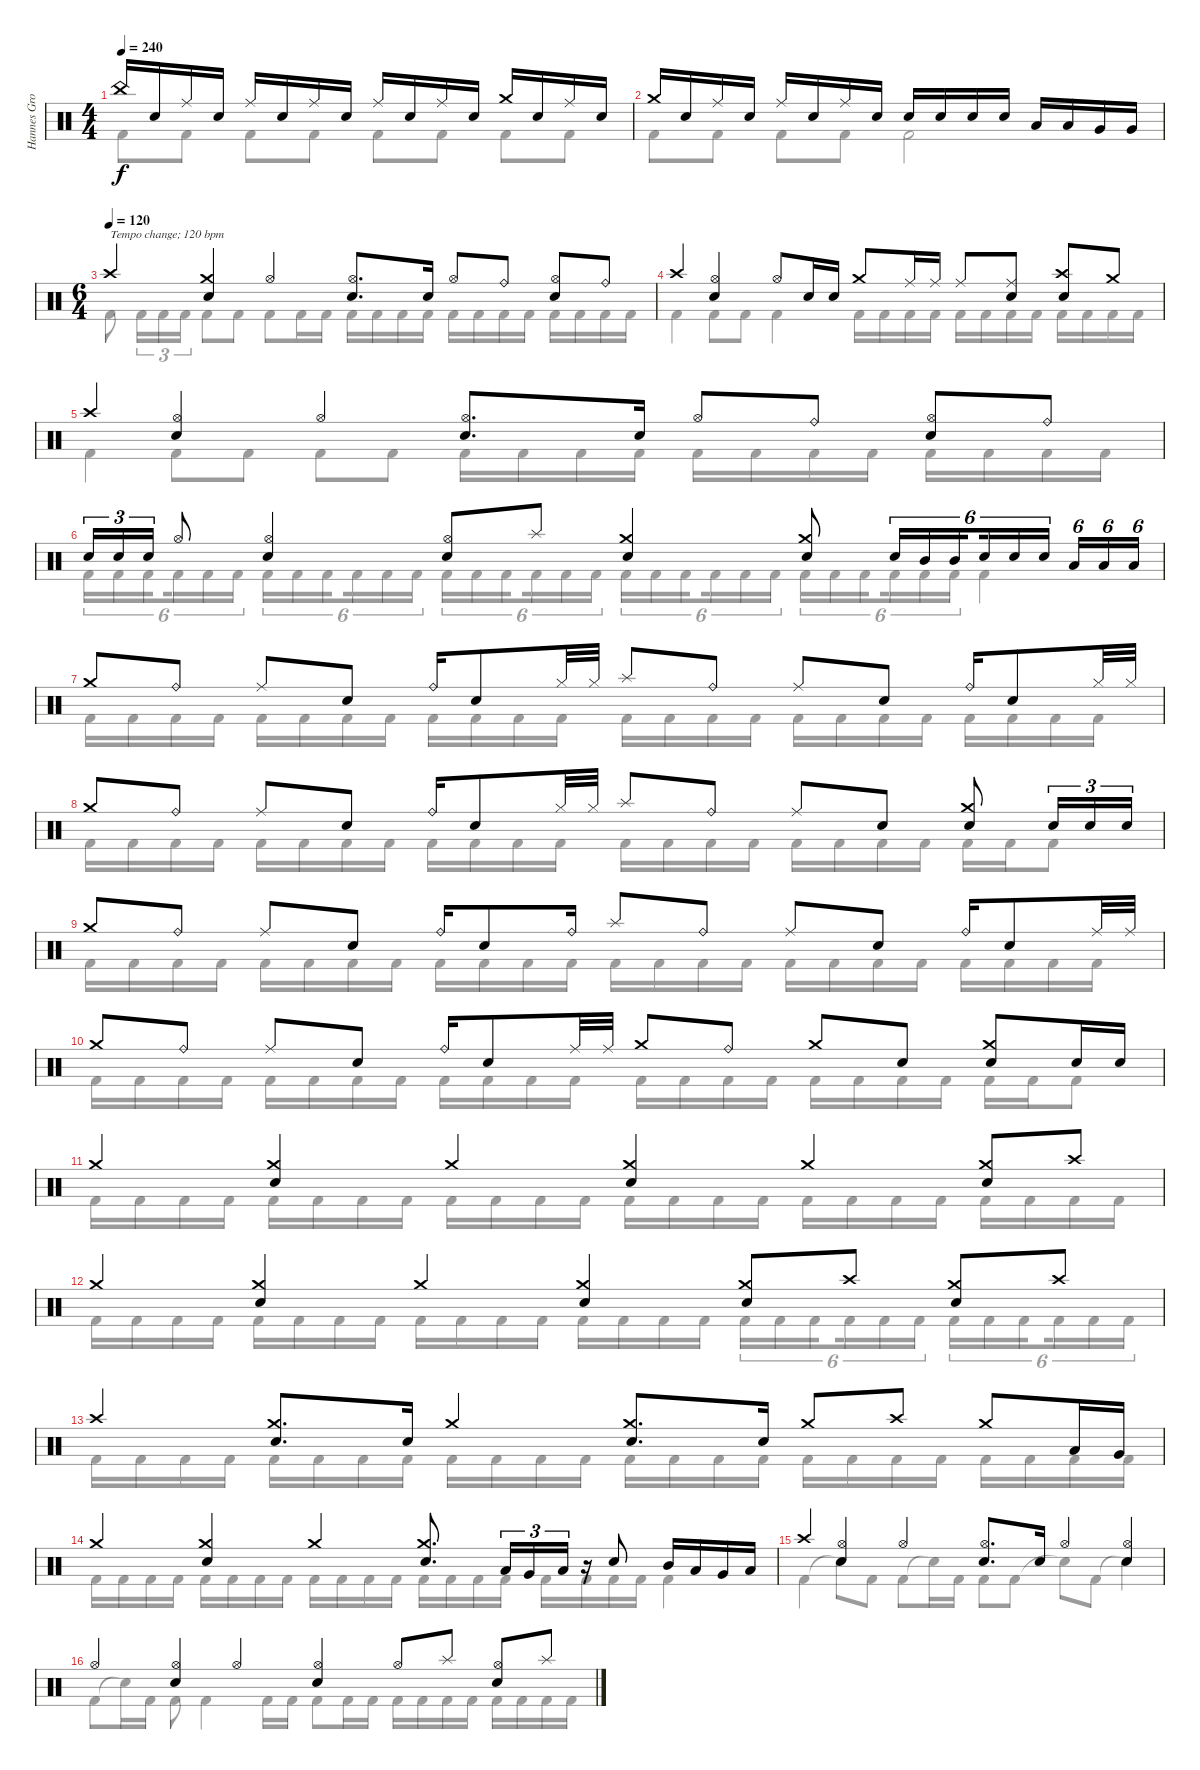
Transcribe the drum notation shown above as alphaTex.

\track ("Hannes Grossmann - drums" "Hannes Gro") {instrument percussion}
\staff {score}
\articulation defaults
\voice
\ts (4 4)
\tempo 240
\clef neutral
\ks c "China (hit)".16{dy f} "Electric Snare (hit)".16 "Ride (middle)".16 "Electric Snare (hit)".16 "Ride (middle)".16 "Electric Snare (hit)".16 "Ride (middle)".16 "Electric Snare (hit)".16 "Ride (middle)".16 "Electric Snare (hit)".16 "Ride (middle)".16 "Electric Snare (hit)".16 "Crash medium (hit)".16 "Electric Snare (hit)".16 "Ride (middle)".16 "Electric Snare (hit)".16
|
"Crash medium (hit)".16 "Electric Snare (hit)".16 "Ride (middle)".16 "Electric Snare (hit)".16 "Ride (middle)".16 "Electric Snare (hit)".16 "Ride (middle)".16 "Electric Snare (hit)".16 "Electric Snare (hit)".16 "Electric Snare (hit)".16 "Electric Snare (hit)".16 "Electric Snare (hit)".16 "Low Tom (hit)".16 "Low Tom (hit)".16 "Very Low Tom (hit)".16 "Very Low Tom (hit)".16 |
\ts (6 4)
\tempo (120)
"Crash high (hit)".4{txt "Tempo change; 120 bpm"} ("Crash medium (hit)" "Electric Snare (hit)").4 "Hi-Hat (open)".4 ("Hi-Hat (open)" "Electric Snare (hit)").8{d} "Electric Snare (hit)".16 "Hi-Hat (open)".8 "Ride (bell)".8 ("Hi-Hat (open)" "Electric Snare (hit)").8 "Ride (bell)".8 |
"Crash high (hit)".4 ("Hi-Hat (open)" "Electric Snare (hit)").4 "Hi-Hat (open)".8 "Electric Snare (hit)".16 "Electric Snare (hit)".16 "Crash medium (hit)".8 "Ride (middle)".16 "Ride (middle)".16 "Ride (middle)".8 ("Ride (middle)" "Electric Snare (hit)").8 ("Crash high (hit)" "Electric Snare (hit)").8 "Crash medium (hit)".8 |
"Crash high (hit)".4 ("Hi-Hat (open)" "Electric Snare (hit)").4 "Hi-Hat (open)".4 ("Hi-Hat (open)" "Electric Snare (hit)").8{d} "Electric Snare (hit)".16 "Hi-Hat (open)".8 "Ride (bell)".8 ("Hi-Hat (open)" "Electric Snare (hit)").8 "Ride (bell)".8 |
"Electric Snare (hit)".16{tu (3 2)} "Electric Snare (hit)".16{tu (3 2)} "Electric Snare (hit)".16{tu (3 2)} "Hi-Hat (open)".8 ("Hi-Hat (open)" "Electric Snare (hit)").4 ("Hi-Hat (open)" "Electric Snare (hit)").8 "Splash (hit)".8 ("Crash medium (hit)" "Electric Snare (hit)").4 ("Crash medium (hit)" "Electric Snare (hit)").8 "Electric Snare (hit)".16{tu (6 4)} "Mid Tom (hit)".16{tu (6 4)} "Mid Tom (hit)".16{tu (6 4) beam splitsecondary} "Electric Snare (hit)".16{tu (6 4)} "Electric Snare (hit)".16{tu (6 4)} "Electric Snare (hit)".16{tu (6 4) beam splitsecondary} "Low Tom (hit)".16{tu (6 4)} "Low Tom (hit)".16{tu (6 4)} "Low Tom (hit)".16{tu (6 4)} |
"Crash medium (hit)".8 "Ride (bell)".8 "Ride (middle)".8 "Electric Snare (hit)".8 "Ride (bell)".16 "Electric Snare (hit)".8 "Hi-Hat (closed)".32 "Hi-Hat (closed)".32 "Splash (hit)".8 "Ride (bell)".8 "Ride (middle)".8 "Electric Snare (hit)".8 "Ride (bell)".16 "Electric Snare (hit)".8 "Hi-Hat (closed)".32 "Hi-Hat (closed)".32 |
"Crash medium (hit)".8 "Ride (bell)".8 "Ride (middle)".8 "Electric Snare (hit)".8 "Ride (bell)".16 "Electric Snare (hit)".8 "Hi-Hat (closed)".32 "Hi-Hat (closed)".32 "Splash (hit)".8 "Ride (bell)".8 "Ride (middle)".8 "Electric Snare (hit)".8 ("Crash medium (hit)" "Electric Snare (hit)").8 "Electric Snare (hit)".16{tu (3 2)} "Electric Snare (hit)".16{tu (3 2)} "Electric Snare (hit)".16{tu (3 2)} |
"Crash medium (hit)".8 "Ride (bell)".8 "Ride (middle)".8 "Electric Snare (hit)".8 "Ride (bell)".16 "Electric Snare (hit)".8 "Ride (bell)".16 "Splash (hit)".8 "Ride (bell)".8 "Ride (middle)".8 "Electric Snare (hit)".8 "Ride (bell)".16 "Electric Snare (hit)".8 "Ride (middle)".32 "Ride (middle)".32 |
"Crash medium (hit)".8 "Ride (bell)".8 "Ride (middle)".8 "Electric Snare (hit)".8 "Ride (bell)".16 "Electric Snare (hit)".8 "Ride (middle)".32 "Ride (middle)".32 "Crash medium (hit)".8 "Ride (bell)".8 "Crash medium (hit)".8 "Electric Snare (hit)".8 ("Crash medium (hit)" "Electric Snare (hit)").8 "Electric Snare (hit)".16 "Electric Snare (hit)".16 |
"Crash medium (hit)".4 ("Crash medium (hit)" "Electric Snare (hit)").4 "Crash medium (hit)".4 ("Crash medium (hit)" "Electric Snare (hit)").4 "Crash medium (hit)".4 ("Crash medium (hit)" "Electric Snare (hit)").8 "Crash high (hit)".8 |
"Crash medium (hit)".4 ("Crash medium (hit)" "Electric Snare (hit)").4 "Crash medium (hit)".4 ("Crash medium (hit)" "Electric Snare (hit)").4 ("Crash medium (hit)" "Electric Snare (hit)").8 "Crash high (hit)".8 ("Crash medium (hit)" "Electric Snare (hit)").8 "Crash high (hit)".8 |
"Crash high (hit)".4 ("Crash medium (hit)" "Electric Snare (hit)").8{d} "Electric Snare (hit)".16 "Crash medium (hit)".4 ("Crash medium (hit)" "Electric Snare (hit)").8{d} "Electric Snare (hit)".16 "Crash medium (hit)".8 "Crash high (hit)".8 "Crash medium (hit)".8 "Low Tom (hit)".16 "Very Low Tom (hit)".16 |
"Crash medium (hit)".4 ("Crash medium (hit)" "Electric Snare (hit)").4 "Crash medium (hit)".4 ("Crash medium (hit)" "Electric Snare (hit)").8{d} "Low Tom (hit)".16{tu (3 2)} "Very Low Tom (hit)".16{tu (3 2)} "Low Floor Tom (hit)".16{tu (3 2)} r.16 "Electric Snare (hit)".8 "Mid Tom (hit)".16 "Low Tom (hit)".16 "Very Low Tom (hit)".16 "Low Floor Tom (hit)".16 |
"Crash high (hit)".4 ("Hi-Hat (open)" "Electric Snare (hit)").4 "Hi-Hat (open)".4 ("Hi-Hat (open)" "Electric Snare (hit)").8{d} "Electric Snare (hit)".16 "Hi-Hat (open)".4 ("Hi-Hat (open)" "Electric Snare (hit)").4 |
"Hi-Hat (open)".4 ("Hi-Hat (open)" "Electric Snare (hit)").4 "Hi-Hat (open)".4 ("Hi-Hat (open)" "Electric Snare (hit)").4 "Hi-Hat (open)".8 "Splash (hit)".8 ("Hi-Hat (open)" "Electric Snare (hit)").8 "Splash (hit)".8
\voice
\clef neutral
\ottava regular
\simile none
\ks c "Kick (hit) 2".8{dy f} "Kick (hit) 2".8 "Kick (hit) 2".8 "Kick (hit) 2".8 "Kick (hit) 2".8 "Kick (hit) 2".8 "Kick (hit) 2".8 "Kick (hit) 2".8
|
"Kick (hit) 2".8 "Kick (hit) 2".8 "Kick (hit) 2".8 "Kick (hit) 2".8 "Kick (hit) 2".2 |
"Kick (hit) 2".8 "Kick (hit) 2".16{tu (3 2)} "Kick (hit) 2".16{tu (3 2)} "Kick (hit) 2".16{tu (3 2)} "Kick (hit) 2".8 "Kick (hit) 2".8 "Kick (hit) 2".8 "Kick (hit) 2".16 "Kick (hit) 2".16 "Kick (hit) 2".16 "Kick (hit) 2".16 "Kick (hit) 2".16 "Kick (hit) 2".16 "Kick (hit) 2".16 "Kick (hit) 2".16 "Kick (hit) 2".16 "Kick (hit) 2".16 "Kick (hit) 2".16 "Kick (hit) 2".16 "Kick (hit) 2".16 "Kick (hit) 2".16 |
"Kick (hit) 2".4 "Kick (hit) 2".8 "Kick (hit) 2".8 "Kick (hit) 2".4 "Kick (hit) 2".16 "Kick (hit) 2".16 "Kick (hit) 2".16 "Kick (hit) 2".16 "Kick (hit) 2".16 "Kick (hit) 2".16 "Kick (hit) 2".16 "Kick (hit) 2".16 "Kick (hit) 2".16 "Kick (hit) 2".16 "Kick (hit) 2".16 "Kick (hit) 2".16 |
"Kick (hit) 2".4 "Kick (hit) 2".8 "Kick (hit) 2".8 "Kick (hit) 2".8 "Kick (hit) 2".8 "Kick (hit) 2".16 "Kick (hit) 2".16 "Kick (hit) 2".16 "Kick (hit) 2".16 "Kick (hit) 2".16 "Kick (hit) 2".16 "Kick (hit) 2".16 "Kick (hit) 2".16 "Kick (hit) 2".16 "Kick (hit) 2".16 "Kick (hit) 2".16 "Kick (hit) 2".16 |
"Kick (hit) 2".16{tu (6 4)} "Kick (hit) 2".16{tu (6 4)} "Kick (hit) 2".16{tu (6 4) beam splitsecondary} "Kick (hit) 2".16{tu (6 4)} "Kick (hit) 2".16{tu (6 4)} "Kick (hit) 2".16{tu (6 4) beam splitsecondary} "Kick (hit) 2".16{tu (6 4)} "Kick (hit) 2".16{tu (6 4)} "Kick (hit) 2".16{tu (6 4) beam splitsecondary} "Kick (hit) 2".16{tu (6 4)} "Kick (hit) 2".16{tu (6 4)} "Kick (hit) 2".16{tu (6 4) beam splitsecondary} "Kick (hit) 2".16{tu (6 4)} "Kick (hit) 2".16{tu (6 4)} "Kick (hit) 2".16{tu (6 4) beam splitsecondary} "Kick (hit) 2".16{tu (6 4)} "Kick (hit) 2".16{tu (6 4)} "Kick (hit) 2".16{tu (6 4)} "Kick (hit) 2".16{tu (6 4)} "Kick (hit) 2".16{tu (6 4)} "Kick (hit) 2".16{tu (6 4) beam splitsecondary} "Kick (hit) 2".16{tu (6 4)} "Kick (hit) 2".16{tu (6 4)} "Kick (hit) 2".16{tu (6 4) beam splitsecondary} "Kick (hit) 2".16{tu (6 4)} "Kick (hit) 2".16{tu (6 4)} "Kick (hit) 2".16{tu (6 4) beam splitsecondary} "Kick (hit) 2".16{tu (6 4)} "Kick (hit) 2".16{tu (6 4)} "Kick (hit) 2".16{tu (6 4)} "Kick (hit) 2".4 |
"Kick (hit) 2".16 "Kick (hit) 2".16 "Kick (hit) 2".16 "Kick (hit) 2".16 "Kick (hit) 2".16 "Kick (hit) 2".16 "Kick (hit) 2".16 "Kick (hit) 2".16 "Kick (hit) 2".16 "Kick (hit) 2".16 "Kick (hit) 2".16 "Kick (hit) 2".16 "Kick (hit) 2".16 "Kick (hit) 2".16 "Kick (hit) 2".16 "Kick (hit) 2".16 "Kick (hit) 2".16 "Kick (hit) 2".16 "Kick (hit) 2".16 "Kick (hit) 2".16 "Kick (hit) 2".16 "Kick (hit) 2".16 "Kick (hit) 2".16 "Kick (hit) 2".16 |
"Kick (hit) 2".16 "Kick (hit) 2".16 "Kick (hit) 2".16 "Kick (hit) 2".16 "Kick (hit) 2".16 "Kick (hit) 2".16 "Kick (hit) 2".16 "Kick (hit) 2".16 "Kick (hit) 2".16 "Kick (hit) 2".16 "Kick (hit) 2".16 "Kick (hit) 2".16 "Kick (hit) 2".16 "Kick (hit) 2".16 "Kick (hit) 2".16 "Kick (hit) 2".16 "Kick (hit) 2".16 "Kick (hit) 2".16 "Kick (hit) 2".16 "Kick (hit) 2".16 "Kick (hit) 2".16 "Kick (hit) 2".16 "Kick (hit) 2".8 |
"Kick (hit) 2".16 "Kick (hit) 2".16 "Kick (hit) 2".16 "Kick (hit) 2".16 "Kick (hit) 2".16 "Kick (hit) 2".16 "Kick (hit) 2".16 "Kick (hit) 2".16 "Kick (hit) 2".16 "Kick (hit) 2".16 "Kick (hit) 2".16 "Kick (hit) 2".16 "Kick (hit) 2".16 "Kick (hit) 2".16 "Kick (hit) 2".16 "Kick (hit) 2".16 "Kick (hit) 2".16 "Kick (hit) 2".16 "Kick (hit) 2".16 "Kick (hit) 2".16 "Kick (hit) 2".16 "Kick (hit) 2".16 "Kick (hit) 2".16 "Kick (hit) 2".16 |
"Kick (hit) 2".16 "Kick (hit) 2".16 "Kick (hit) 2".16 "Kick (hit) 2".16 "Kick (hit) 2".16 "Kick (hit) 2".16 "Kick (hit) 2".16 "Kick (hit) 2".16 "Kick (hit) 2".16 "Kick (hit) 2".16 "Kick (hit) 2".16 "Kick (hit) 2".16 "Kick (hit) 2".16 "Kick (hit) 2".16 "Kick (hit) 2".16 "Kick (hit) 2".16 "Kick (hit) 2".16 "Kick (hit) 2".16 "Kick (hit) 2".16 "Kick (hit) 2".16 "Kick (hit) 2".16 "Kick (hit) 2".16 "Kick (hit) 2".8 |
"Kick (hit) 2".16 "Kick (hit) 2".16 "Kick (hit) 2".16 "Kick (hit) 2".16 "Kick (hit) 2".16 "Kick (hit) 2".16 "Kick (hit) 2".16 "Kick (hit) 2".16 "Kick (hit) 2".16 "Kick (hit) 2".16 "Kick (hit) 2".16 "Kick (hit) 2".16 "Kick (hit) 2".16 "Kick (hit) 2".16 "Kick (hit) 2".16 "Kick (hit) 2".16 "Kick (hit) 2".16 "Kick (hit) 2".16 "Kick (hit) 2".16 "Kick (hit) 2".16 "Kick (hit) 2".16 "Kick (hit) 2".16 "Kick (hit) 2".16 "Kick (hit) 2".16 |
"Kick (hit) 2".16 "Kick (hit) 2".16 "Kick (hit) 2".16 "Kick (hit) 2".16 "Kick (hit) 2".16 "Kick (hit) 2".16 "Kick (hit) 2".16 "Kick (hit) 2".16 "Kick (hit) 2".16 "Kick (hit) 2".16 "Kick (hit) 2".16 "Kick (hit) 2".16 "Kick (hit) 2".16 "Kick (hit) 2".16 "Kick (hit) 2".16 "Kick (hit) 2".16{beam splitsecondary} "Kick (hit) 2".16{tu (6 4)} "Kick (hit) 2".16{tu (6 4)} "Kick (hit) 2".16{tu (6 4) beam splitsecondary} "Kick (hit) 2".16{tu (6 4)} "Kick (hit) 2".16{tu (6 4)} "Kick (hit) 2".16{tu (6 4) beam splitsecondary} "Kick (hit) 2".16{tu (6 4)} "Kick (hit) 2".16{tu (6 4)} "Kick (hit) 2".16{tu (6 4) beam splitsecondary} "Kick (hit) 2".16{tu (6 4)} "Kick (hit) 2".16{tu (6 4)} "Kick (hit) 2".16{tu (6 4)} |
"Kick (hit) 2".16 "Kick (hit) 2".16 "Kick (hit) 2".16 "Kick (hit) 2".16 "Kick (hit) 2".16 "Kick (hit) 2".16 "Kick (hit) 2".16 "Kick (hit) 2".16 "Kick (hit) 2".16 "Kick (hit) 2".16 "Kick (hit) 2".16 "Kick (hit) 2".16 "Kick (hit) 2".16 "Kick (hit) 2".16 "Kick (hit) 2".16 "Kick (hit) 2".16 "Kick (hit) 2".16 "Kick (hit) 2".16 "Kick (hit) 2".16 "Kick (hit) 2".16 "Kick (hit) 2".16 "Kick (hit) 2".16 "Kick (hit) 2".16 "Kick (hit) 2".16 |
"Kick (hit) 2".16 "Kick (hit) 2".16 "Kick (hit) 2".16 "Kick (hit) 2".16 "Kick (hit) 2".16 "Kick (hit) 2".16 "Kick (hit) 2".16 "Kick (hit) 2".16 "Kick (hit) 2".16 "Kick (hit) 2".16 "Kick (hit) 2".16 "Kick (hit) 2".16 "Kick (hit) 2".16 "Kick (hit) 2".16 "Kick (hit) 2".16 "Kick (hit) 2".16 "Kick (hit) 2".16 "Kick (hit) 2".16 "Kick (hit) 2".16 "Kick (hit) 2".16 "Kick (hit) 2".4 |
"Kick (hit) 2".4 "Snare (hit)"{t}.8 "Kick (hit) 2".8 "Kick (hit) 2".8 "Snare (hit)"{t}.16 "Kick (hit) 2".16 "Kick (hit) 2".8 "Kick (hit) 2".8 "Snare (hit)"{t}.8 "Kick (hit) 2".8 "Snare (hit)"{t}.4 |
"Kick (hit) 2".8 "Snare (hit)"{t}.16 "Kick (hit) 2".16 "Kick (hit) 2".8 "Kick (hit) 2".4 "Kick (hit) 2".16 "Kick (hit) 2".16 "Kick (hit) 2".8 "Kick (hit) 2".16 "Kick (hit) 2".16 "Kick (hit) 2".16 "Kick (hit) 2".16 "Kick (hit) 2".16 "Kick (hit) 2".16 "Kick (hit) 2".16 "Kick (hit) 2".16 "Kick (hit) 2".16 "Kick (hit) 2".16
